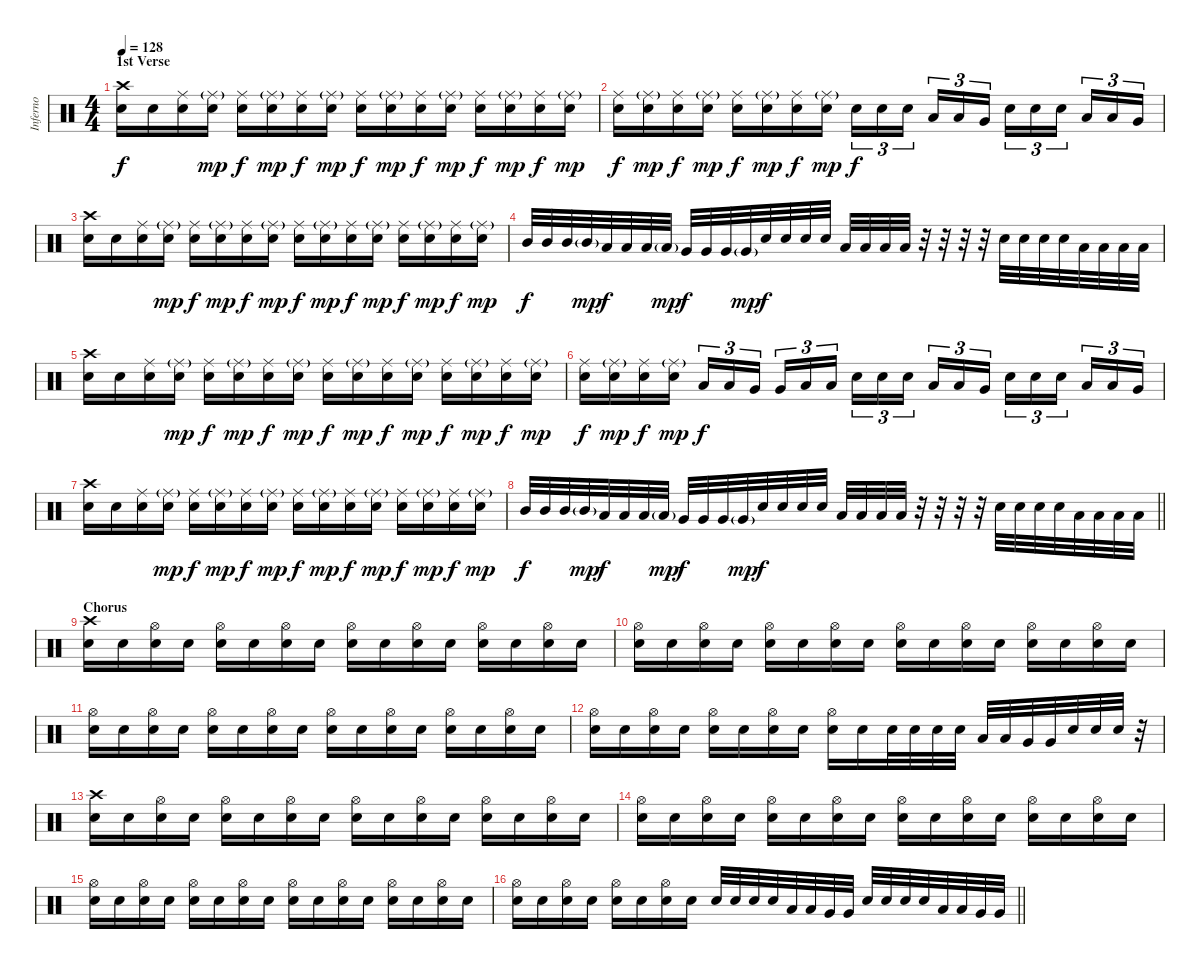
\track ("Inferno" "Inferno") {instrument percussion}
\staff {score}
\articulation defaults
\ts (4 4)
\section ("" "1st Verse")
\tempo 128
\clef neutral
\ks c
("Crash high (hit)" "Snare (hit) 2").16{dy f} "Snare (hit) 2".16 ("Ride (middle)" "Snare (hit) 2").16 ("Ride (middle)"{g} "Snare (hit) 2").16{dy mp} ("Ride (middle)" "Snare (hit) 2").16{dy f} ("Ride (middle)"{g} "Snare (hit) 2").16{dy mp} ("Ride (middle)" "Snare (hit) 2").16{dy f} ("Ride (middle)"{g} "Snare (hit) 2").16{dy mp} ("Ride (middle)" "Snare (hit) 2").16{dy f} ("Ride (middle)"{g} "Snare (hit) 2").16{dy mp} ("Ride (middle)" "Snare (hit) 2").16{dy f} ("Ride (middle)"{g} "Snare (hit) 2").16{dy mp} ("Ride (middle)" "Snare (hit) 2").16{dy f} ("Ride (middle)"{g} "Snare (hit) 2").16{dy mp} ("Ride (middle)" "Snare (hit) 2").16{dy f} ("Ride (middle)"{g} "Snare (hit) 2").16{dy mp} |
("Ride (middle)" "Snare (hit) 2").16{dy f} ("Ride (middle)"{g} "Snare (hit) 2").16{dy mp} ("Ride (middle)" "Snare (hit) 2").16{dy f} ("Ride (middle)"{g} "Snare (hit) 2").16{dy mp} ("Ride (middle)" "Snare (hit) 2").16{dy f} ("Ride (middle)"{g} "Snare (hit) 2").16{dy mp} ("Ride (middle)" "Snare (hit) 2").16{dy f} ("Ride (middle)"{g} "Snare (hit) 2").16{dy mp} "Snare (hit) 2".16{tu (3 2) dy f} "Snare (hit) 2".16{tu (3 2)} "Snare (hit) 2".16{tu (3 2) beam splitsecondary} "Low Tom (hit)".16{tu (3 2)} "Low Tom (hit)".16{tu (3 2)} "Very Low Tom (hit)".16{tu (3 2)} "Snare (hit) 2".16{tu (3 2)} "Snare (hit) 2".16{tu (3 2)} "Snare (hit) 2".16{tu (3 2) beam splitsecondary} "Low Tom (hit)".16{tu (3 2)} "Low Tom (hit)".16{tu (3 2)} "Very Low Tom (hit)".16{tu (3 2)} |
("Crash high (hit)" "Snare (hit) 2").16 "Snare (hit) 2".16 ("Ride (middle)" "Snare (hit) 2").16 ("Ride (middle)"{g} "Snare (hit) 2").16{dy mp} ("Ride (middle)" "Snare (hit) 2").16{dy f} ("Ride (middle)"{g} "Snare (hit) 2").16{dy mp} ("Ride (middle)" "Snare (hit) 2").16{dy f} ("Ride (middle)"{g} "Snare (hit) 2").16{dy mp} ("Ride (middle)" "Snare (hit) 2").16{dy f} ("Ride (middle)"{g} "Snare (hit) 2").16{dy mp} ("Ride (middle)" "Snare (hit) 2").16{dy f} ("Ride (middle)"{g} "Snare (hit) 2").16{dy mp} ("Ride (middle)" "Snare (hit) 2").16{dy f} ("Ride (middle)"{g} "Snare (hit) 2").16{dy mp} ("Ride (middle)" "Snare (hit) 2").16{dy f} ("Ride (middle)"{g} "Snare (hit) 2").16{dy mp} |
"Mid Tom (hit)".32{dy f} "Mid Tom (hit)".32 "Mid Tom (hit)".32 "Mid Tom (hit)"{g}.32{dy mp} "Low Tom (hit)".32{dy f} "Low Tom (hit)".32 "Low Tom (hit)".32 "Low Tom (hit)"{g}.32{dy mp} "Very Low Tom (hit)".32{dy f} "Very Low Tom (hit)".32 "Very Low Tom (hit)".32 "Very Low Tom (hit)"{g}.32{dy mp} "Snare (hit) 2".32{dy f} "Snare (hit) 2".32 "Snare (hit) 2".32 "Snare (hit) 2".32 "Low Floor Tom (hit)".32 "Low Floor Tom (hit)".32 "Low Floor Tom (hit)".32 "Low Floor Tom (hit)".32 r.32 r.32 r.32 r.32 "Snare (hit) 2".32 "Snare (hit) 2".32 "Snare (hit) 2".32 "Snare (hit) 2".32 "Low Tom (hit)".32 "Low Tom (hit)".32 "Low Tom (hit)".32 "Low Tom (hit)".32 |
("Crash high (hit)" "Snare (hit) 2").16 "Snare (hit) 2".16 ("Ride (middle)" "Snare (hit) 2").16 ("Ride (middle)"{g} "Snare (hit) 2").16{dy mp} ("Ride (middle)" "Snare (hit) 2").16{dy f} ("Ride (middle)"{g} "Snare (hit) 2").16{dy mp} ("Ride (middle)" "Snare (hit) 2").16{dy f} ("Ride (middle)"{g} "Snare (hit) 2").16{dy mp} ("Ride (middle)" "Snare (hit) 2").16{dy f} ("Ride (middle)"{g} "Snare (hit) 2").16{dy mp} ("Ride (middle)" "Snare (hit) 2").16{dy f} ("Ride (middle)"{g} "Snare (hit) 2").16{dy mp} ("Ride (middle)" "Snare (hit) 2").16{dy f} ("Ride (middle)"{g} "Snare (hit) 2").16{dy mp} ("Ride (middle)" "Snare (hit) 2").16{dy f} ("Ride (middle)"{g} "Snare (hit) 2").16{dy mp} |
("Ride (middle)" "Snare (hit) 2").16{dy f} ("Ride (middle)"{g} "Snare (hit) 2").16{dy mp} ("Ride (middle)" "Snare (hit) 2").16{dy f} ("Ride (middle)"{g} "Snare (hit) 2").16{dy mp} "Low Tom (hit)".16{tu (3 2) dy f} "Low Tom (hit)".16{tu (3 2)} "Very Low Tom (hit)".16{tu (3 2) beam splitsecondary} "Very Low Tom (hit)".16{tu (3 2)} "Low Floor Tom (hit)".16{tu (3 2)} "Low Floor Tom (hit)".16{tu (3 2)} "Snare (hit) 2".16{tu (3 2)} "Snare (hit) 2".16{tu (3 2)} "Snare (hit) 2".16{tu (3 2) beam splitsecondary} "Low Tom (hit)".16{tu (3 2)} "Low Tom (hit)".16{tu (3 2)} "Very Low Tom (hit)".16{tu (3 2)} "Snare (hit) 2".16{tu (3 2)} "Snare (hit) 2".16{tu (3 2)} "Snare (hit) 2".16{tu (3 2) beam splitsecondary} "Low Tom (hit)".16{tu (3 2)} "Low Tom (hit)".16{tu (3 2)} "Very Low Tom (hit)".16{tu (3 2)} |
("Crash high (hit)" "Snare (hit) 2").16 "Snare (hit) 2".16 ("Ride (middle)" "Snare (hit) 2").16 ("Ride (middle)"{g} "Snare (hit) 2").16{dy mp} ("Ride (middle)" "Snare (hit) 2").16{dy f} ("Ride (middle)"{g} "Snare (hit) 2").16{dy mp} ("Ride (middle)" "Snare (hit) 2").16{dy f} ("Ride (middle)"{g} "Snare (hit) 2").16{dy mp} ("Ride (middle)" "Snare (hit) 2").16{dy f} ("Ride (middle)"{g} "Snare (hit) 2").16{dy mp} ("Ride (middle)" "Snare (hit) 2").16{dy f} ("Ride (middle)"{g} "Snare (hit) 2").16{dy mp} ("Ride (middle)" "Snare (hit) 2").16{dy f} ("Ride (middle)"{g} "Snare (hit) 2").16{dy mp} ("Ride (middle)" "Snare (hit) 2").16{dy f} ("Ride (middle)"{g} "Snare (hit) 2").16{dy mp} |
\barLineRight lightlight "Mid Tom (hit)".32{dy f} "Mid Tom (hit)".32 "Mid Tom (hit)".32 "Mid Tom (hit)"{g}.32{dy mp} "Low Tom (hit)".32{dy f} "Low Tom (hit)".32 "Low Tom (hit)".32 "Low Tom (hit)"{g}.32{dy mp} "Very Low Tom (hit)".32{dy f} "Very Low Tom (hit)".32 "Very Low Tom (hit)".32 "Very Low Tom (hit)"{g}.32{dy mp} "Snare (hit) 2".32{dy f} "Snare (hit) 2".32 "Snare (hit) 2".32 "Snare (hit) 2".32 "Low Floor Tom (hit)".32 "Low Floor Tom (hit)".32 "Low Floor Tom (hit)".32 "Low Floor Tom (hit)".32
r.32 r.32 r.32 r.32 "Snare (hit) 2".32 "Snare (hit) 2".32 "Snare (hit) 2".32 "Snare (hit) 2".32 "Low Tom (hit)".32 "Low Tom (hit)".32 "Low Tom (hit)".32 "Low Tom (hit)".32 |
\section ("" "Chorus")
("Crash high (hit)" "Snare (hit) 2").16 "Snare (hit) 2".16 ("Hi-Hat (open)" "Snare (hit) 2").16 "Snare (hit) 2".16 ("Hi-Hat (open)" "Snare (hit) 2").16 "Snare (hit) 2".16 ("Hi-Hat (open)" "Snare (hit) 2").16 "Snare (hit) 2".16 ("Hi-Hat (open)" "Snare (hit) 2").16 "Snare (hit) 2".16 ("Hi-Hat (open)" "Snare (hit) 2").16 "Snare (hit) 2".16 ("Hi-Hat (open)" "Snare (hit) 2").16 "Snare (hit) 2".16 ("Hi-Hat (open)" "Snare (hit) 2").16 "Snare (hit) 2".16 |
("Hi-Hat (open)" "Snare (hit) 2").16 "Snare (hit) 2".16 ("Hi-Hat (open)" "Snare (hit) 2").16 "Snare (hit) 2".16 ("Hi-Hat (open)" "Snare (hit) 2").16 "Snare (hit) 2".16 ("Hi-Hat (open)" "Snare (hit) 2").16 "Snare (hit) 2".16 ("Hi-Hat (open)" "Snare (hit) 2").16 "Snare (hit) 2".16 ("Hi-Hat (open)" "Snare (hit) 2").16 "Snare (hit) 2".16 ("Hi-Hat (open)" "Snare (hit) 2").16 "Snare (hit) 2".16 ("Hi-Hat (open)" "Snare (hit) 2").16 "Snare (hit) 2".16 |
("Hi-Hat (open)" "Snare (hit) 2").16 "Snare (hit) 2".16 ("Hi-Hat (open)" "Snare (hit) 2").16 "Snare (hit) 2".16 ("Hi-Hat (open)" "Snare (hit) 2").16 "Snare (hit) 2".16 ("Hi-Hat (open)" "Snare (hit) 2").16 "Snare (hit) 2".16 ("Hi-Hat (open)" "Snare (hit) 2").16 "Snare (hit) 2".16 ("Hi-Hat (open)" "Snare (hit) 2").16 "Snare (hit) 2".16 ("Hi-Hat (open)" "Snare (hit) 2").16 "Snare (hit) 2".16 ("Hi-Hat (open)" "Snare (hit) 2").16 "Snare (hit) 2".16 |
("Hi-Hat (open)" "Snare (hit) 2").16 "Snare (hit) 2".16 ("Hi-Hat (open)" "Snare (hit) 2").16 "Snare (hit) 2".16 ("Hi-Hat (open)" "Snare (hit) 2").16 "Snare (hit) 2".16 ("Hi-Hat (open)" "Snare (hit) 2").16 "Snare (hit) 2".16 ("Hi-Hat (open)" "Snare (hit) 2").16 "Snare (hit) 2".16 "Snare (hit) 2".32 "Snare (hit) 2".32 "Snare (hit) 2".32 "Snare (hit) 2".32 "Low Tom (hit)".32 "Low Tom (hit)".32 "Very Low Tom (hit)".32 "Very Low Tom (hit)".32 "Snare (hit) 2".32 "Snare (hit) 2".32 "Snare (hit) 2".32 r.32 |
("Crash high (hit)" "Snare (hit) 2").16 "Snare (hit) 2".16 ("Hi-Hat (open)" "Snare (hit) 2").16 "Snare (hit) 2".16 ("Hi-Hat (open)" "Snare (hit) 2").16 "Snare (hit) 2".16 ("Hi-Hat (open)" "Snare (hit) 2").16 "Snare (hit) 2".16 ("Hi-Hat (open)" "Snare (hit) 2").16 "Snare (hit) 2".16 ("Hi-Hat (open)" "Snare (hit) 2").16 "Snare (hit) 2".16 ("Hi-Hat (open)" "Snare (hit) 2").16 "Snare (hit) 2".16 ("Hi-Hat (open)" "Snare (hit) 2").16 "Snare (hit) 2".16 |
("Hi-Hat (open)" "Snare (hit) 2").16 "Snare (hit) 2".16 ("Hi-Hat (open)" "Snare (hit) 2").16 "Snare (hit) 2".16 ("Hi-Hat (open)" "Snare (hit) 2").16 "Snare (hit) 2".16 ("Hi-Hat (open)" "Snare (hit) 2").16 "Snare (hit) 2".16 ("Hi-Hat (open)" "Snare (hit) 2").16 "Snare (hit) 2".16 ("Hi-Hat (open)" "Snare (hit) 2").16 "Snare (hit) 2".16 ("Hi-Hat (open)" "Snare (hit) 2").16 "Snare (hit) 2".16 ("Hi-Hat (open)" "Snare (hit) 2").16 "Snare (hit) 2".16 |
("Hi-Hat (open)" "Snare (hit) 2").16 "Snare (hit) 2".16 ("Hi-Hat (open)" "Snare (hit) 2").16 "Snare (hit) 2".16 ("Hi-Hat (open)" "Snare (hit) 2").16 "Snare (hit) 2".16 ("Hi-Hat (open)" "Snare (hit) 2").16 "Snare (hit) 2".16 ("Hi-Hat (open)" "Snare (hit) 2").16 "Snare (hit) 2".16 ("Hi-Hat (open)" "Snare (hit) 2").16 "Snare (hit) 2".16 ("Hi-Hat (open)" "Snare (hit) 2").16 "Snare (hit) 2".16 ("Hi-Hat (open)" "Snare (hit) 2").16 "Snare (hit) 2".16 |
\barLineRight lightlight
("Hi-Hat (open)" "Snare (hit) 2").16 "Snare (hit) 2".16 ("Hi-Hat (open)" "Snare (hit) 2").16 "Snare (hit) 2".16 ("Hi-Hat (open)" "Snare (hit) 2").16 "Snare (hit) 2".16 ("Hi-Hat (open)" "Snare (hit) 2").16 "Snare (hit) 2".16 "Snare (hit) 2".32 "Snare (hit) 2".32 "Snare (hit) 2".32 "Snare (hit) 2".32 "Low Tom (hit)".32 "Low Tom (hit)".32 "Very Low Tom (hit)".32 "Very Low Tom (hit)".32 "Snare (hit) 2".32 "Snare (hit) 2".32 "Snare (hit) 2".32 "Snare (hit) 2".32 "Low Tom (hit)".32 "Low Tom (hit)".32 "Very Low Tom (hit)".32 "Very Low Tom (hit)".32
